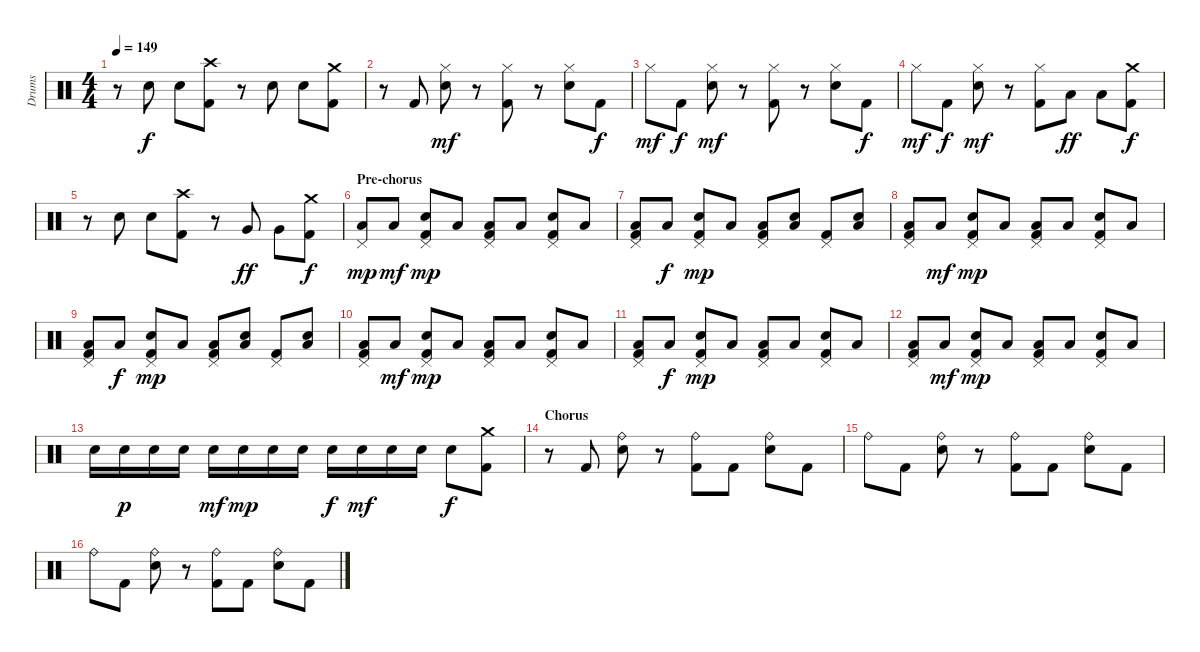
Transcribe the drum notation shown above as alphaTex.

\track ("Drums" "Drums") {instrument percussion}
\staff {score}
\articulation defaults
\ts (4 4)
\tempo 149
\clef neutral
\ks c
r.8{dy f} "Snare (hit) 2".8 "Snare (hit) 2".8 ("Crash high (hit)" "Kick (hit) 2").8 r.8 "Snare (hit) 2".8 "Snare (hit) 2".8 ("Crash medium (hit)" "Kick (hit) 2").8 |
r.8 "Kick (hit) 2".8 ("Hi-Hat (closed)" "Snare (hit) 2").8{dy mf} r.8 ("Hi-Hat (closed)" "Kick (hit) 2").8 r.8 ("Hi-Hat (closed)" "Snare (hit) 2").8 "Kick (hit) 2".8{dy f} |
"Hi-Hat (closed)".8{dy mf} "Kick (hit) 2".8{dy f} ("Hi-Hat (closed)" "Snare (hit) 2").8{dy mf} r.8 ("Hi-Hat (closed)" "Kick (hit) 2").8 r.8 ("Hi-Hat (closed)" "Snare (hit) 2").8 "Kick (hit) 2".8{dy f} |
"Hi-Hat (closed)".8{dy mf} "Kick (hit) 2".8{dy f} ("Hi-Hat (closed)" "Snare (hit) 2").8{dy mf} r.8 ("Hi-Hat (closed)" "Kick (hit) 2").8 "Low Tom (hit)".8{dy ff} "Low Tom (hit)".8 ("Crash medium (hit)" "Kick (hit) 2").8{dy f} |
r.8 "Snare (hit) 2".8 "Snare (hit) 2".8 ("Crash high (hit)" "Kick (hit) 2").8 r.8 "Very Low Tom (hit)".8{dy ff} "Very Low Tom (hit)".8 ("Crash medium (hit)" "Kick (hit) 2").8{dy f} |
\section ("" "Pre-chorus")
("Pedal Hi-Hat (hit)" "Low Floor Tom (hit)").8{dy mp} "Low Floor Tom (hit)".8{dy mf} ("Pedal Hi-Hat (hit)" "Snare (hit) 2" "Kick (hit) 2").8{dy mp} "Low Floor Tom (hit)".8 ("Pedal Hi-Hat (hit)" "Low Floor Tom (hit)" "Kick (hit) 2").8 "Low Floor Tom (hit)".8 ("Pedal Hi-Hat (hit)" "Snare (hit) 2" "Kick (hit) 2").8 "Low Floor Tom (hit)".8 |
("Pedal Hi-Hat (hit)" "Low Floor Tom (hit)" "Kick (hit) 2").8 "Low Floor Tom (hit)".8{dy f} ("Pedal Hi-Hat (hit)" "Snare (hit) 2" "Kick (hit) 2").8{dy mp} "Low Floor Tom (hit)".8 ("Pedal Hi-Hat (hit)" "Low Floor Tom (hit)" "Kick (hit) 2").8 ("Snare (hit) 2" "Low Floor Tom (hit)").8 ("Pedal Hi-Hat (hit)" "Kick (hit) 2").8 ("Snare (hit) 2" "Low Floor Tom (hit)").8 |
("Pedal Hi-Hat (hit)" "Low Floor Tom (hit)" "Kick (hit) 2").8 "Low Floor Tom (hit)".8{dy mf} ("Pedal Hi-Hat (hit)" "Snare (hit) 2" "Kick (hit) 2").8{dy mp} "Low Floor Tom (hit)".8 ("Pedal Hi-Hat (hit)" "Low Floor Tom (hit)" "Kick (hit) 2").8 "Low Floor Tom (hit)".8 ("Pedal Hi-Hat (hit)" "Snare (hit) 2" "Kick (hit) 2").8 "Low Floor Tom (hit)".8 |
("Pedal Hi-Hat (hit)" "Low Floor Tom (hit)" "Kick (hit) 2").8 "Low Floor Tom (hit)".8{dy f} ("Pedal Hi-Hat (hit)" "Snare (hit) 2" "Kick (hit) 2").8{dy mp} "Low Floor Tom (hit)".8 ("Pedal Hi-Hat (hit)" "Low Floor Tom (hit)" "Kick (hit) 2").8 ("Snare (hit) 2" "Low Floor Tom (hit)").8 ("Pedal Hi-Hat (hit)" "Kick (hit) 2").8 ("Snare (hit) 2" "Low Floor Tom (hit)").8 |
("Pedal Hi-Hat (hit)" "Low Floor Tom (hit)" "Kick (hit) 2").8 "Low Floor Tom (hit)".8{dy mf} ("Pedal Hi-Hat (hit)" "Snare (hit) 2" "Kick (hit) 2").8{dy mp} "Low Floor Tom (hit)".8 ("Pedal Hi-Hat (hit)" "Low Floor Tom (hit)" "Kick (hit) 2").8 "Low Floor Tom (hit)".8 ("Pedal Hi-Hat (hit)" "Snare (hit) 2" "Kick (hit) 2").8 "Low Floor Tom (hit)".8 |
("Pedal Hi-Hat (hit)" "Low Floor Tom (hit)" "Kick (hit) 2").8 "Low Floor Tom (hit)".8{dy f} ("Pedal Hi-Hat (hit)" "Snare (hit) 2" "Kick (hit) 2").8{dy mp} "Low Floor Tom (hit)".8 ("Pedal Hi-Hat (hit)" "Low Floor Tom (hit)" "Kick (hit) 2").8 "Low Floor Tom (hit)".8 ("Pedal Hi-Hat (hit)" "Snare (hit) 2" "Kick (hit) 2").8 "Low Floor Tom (hit)".8 |
("Pedal Hi-Hat (hit)" "Low Floor Tom (hit)" "Kick (hit) 2").8 "Low Floor Tom (hit)".8{dy mf} ("Pedal Hi-Hat (hit)" "Snare (hit) 2" "Kick (hit) 2").8{dy mp} "Low Floor Tom (hit)".8 ("Pedal Hi-Hat (hit)" "Low Floor Tom (hit)" "Kick (hit) 2").8 "Low Floor Tom (hit)".8 ("Pedal Hi-Hat (hit)" "Snare (hit) 2" "Kick (hit) 2").8 "Low Floor Tom (hit)".8 |
"Snare (hit) 2".16 "Snare (hit) 2".16{dy p} "Snare (hit) 2".16 "Snare (hit) 2".16 "Snare (hit) 2".16{dy mf} "Snare (hit) 2".16{dy mp} "Snare (hit) 2".16 "Snare (hit) 2".16 "Snare (hit) 2".16{dy f} "Snare (hit) 2".16{dy mf} "Snare (hit) 2".16 "Snare (hit) 2".16 "Snare (hit) 2".8{dy f} ("Crash medium (hit)" "Kick (hit) 2").8 |
\section ("" "Chorus")
r.8 "Kick (hit) 2".8 ("Ride (bell)" "Snare (hit) 2").8 r.8 ("Ride (bell)" "Kick (hit) 2").8 "Kick (hit) 2".8 ("Ride (bell)" "Snare (hit) 2").8 "Kick (hit) 2".8 |
"Ride (bell)".8 "Kick (hit) 2".8 ("Ride (bell)" "Snare (hit) 2").8 r.8 ("Ride (bell)" "Kick (hit) 2").8 "Kick (hit) 2".8 ("Ride (bell)" "Snare (hit) 2").8 "Kick (hit) 2".8 |
"Ride (bell)".8 "Kick (hit) 2".8 ("Ride (bell)" "Snare (hit) 2").8 r.8 ("Ride (bell)" "Kick (hit) 2").8 "Kick (hit) 2".8 ("Ride (bell)" "Snare (hit) 2").8 "Kick (hit) 2".8
